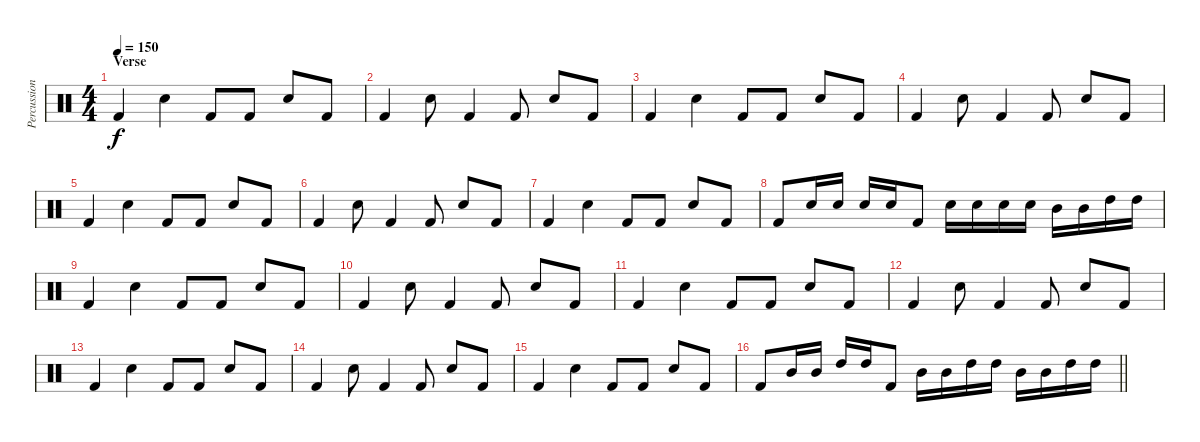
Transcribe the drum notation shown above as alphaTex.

\track ("Percussion" "Percussion") {instrument percussion}
\staff {score}
\articulation defaults
\ts (4 4)
\section ("" "Verse")
\tempo 150
\clef neutral
\ks c "Kick (hit) 2".4{dy f} "Snare (hit) 2".4 "Kick (hit) 2".8 "Kick (hit) 2".8 "Snare (hit) 2".8 "Kick (hit) 2".8
|
"Kick (hit) 2".4 "Snare (hit) 2".8 "Kick (hit) 2".4 "Kick (hit) 2".8 "Snare (hit) 2".8 "Kick (hit) 2".8 |
"Kick (hit) 2".4 "Snare (hit) 2".4 "Kick (hit) 2".8 "Kick (hit) 2".8 "Snare (hit) 2".8 "Kick (hit) 2".8 |
"Kick (hit) 2".4 "Snare (hit) 2".8 "Kick (hit) 2".4 "Kick (hit) 2".8 "Snare (hit) 2".8 "Kick (hit) 2".8 |
"Kick (hit) 2".4 "Snare (hit) 2".4 "Kick (hit) 2".8 "Kick (hit) 2".8 "Snare (hit) 2".8 "Kick (hit) 2".8 |
"Kick (hit) 2".4 "Snare (hit) 2".8 "Kick (hit) 2".4 "Kick (hit) 2".8 "Snare (hit) 2".8 "Kick (hit) 2".8 |
"Kick (hit) 2".4 "Snare (hit) 2".4 "Kick (hit) 2".8 "Kick (hit) 2".8 "Snare (hit) 2".8 "Kick (hit) 2".8 |
"Kick (hit) 2".8 "Snare (hit) 2".16 "Snare (hit) 2".16 "Snare (hit) 2".16 "Snare (hit) 2".16 "Kick (hit) 2".8 "Snare (hit) 2".16 "Snare (hit) 2".16 "Snare (hit) 2".16 "Snare (hit) 2".16 "Mid Tom (hit)".16 "Mid Tom (hit)".16 "High Tom (hit)".16 "High Tom (hit)".16 |
"Kick (hit) 2".4 "Snare (hit) 2".4 "Kick (hit) 2".8 "Kick (hit) 2".8 "Snare (hit) 2".8 "Kick (hit) 2".8 |
"Kick (hit) 2".4 "Snare (hit) 2".8 "Kick (hit) 2".4 "Kick (hit) 2".8 "Snare (hit) 2".8 "Kick (hit) 2".8 |
"Kick (hit) 2".4 "Snare (hit) 2".4 "Kick (hit) 2".8 "Kick (hit) 2".8 "Snare (hit) 2".8 "Kick (hit) 2".8 |
"Kick (hit) 2".4 "Snare (hit) 2".8 "Kick (hit) 2".4 "Kick (hit) 2".8 "Snare (hit) 2".8 "Kick (hit) 2".8 |
"Kick (hit) 2".4 "Snare (hit) 2".4 "Kick (hit) 2".8 "Kick (hit) 2".8 "Snare (hit) 2".8 "Kick (hit) 2".8 |
"Kick (hit) 2".4 "Snare (hit) 2".8 "Kick (hit) 2".4 "Kick (hit) 2".8 "Snare (hit) 2".8 "Kick (hit) 2".8 |
"Kick (hit) 2".4 "Snare (hit) 2".4 "Kick (hit) 2".8 "Kick (hit) 2".8 "Snare (hit) 2".8 "Kick (hit) 2".8 |
\barLineRight lightlight "Kick (hit) 2".8 "Mid Tom (hit)".16 "Mid Tom (hit)".16 "High Tom (hit)".16 "High Tom (hit)".16 "Kick (hit) 2".8 "Mid Tom (hit)".16 "Mid Tom (hit)".16 "High Tom (hit)".16 "High Tom (hit)".16 "Mid Tom (hit)".16 "Mid Tom (hit)".16 "High Tom (hit)".16 "High Tom (hit)".16
